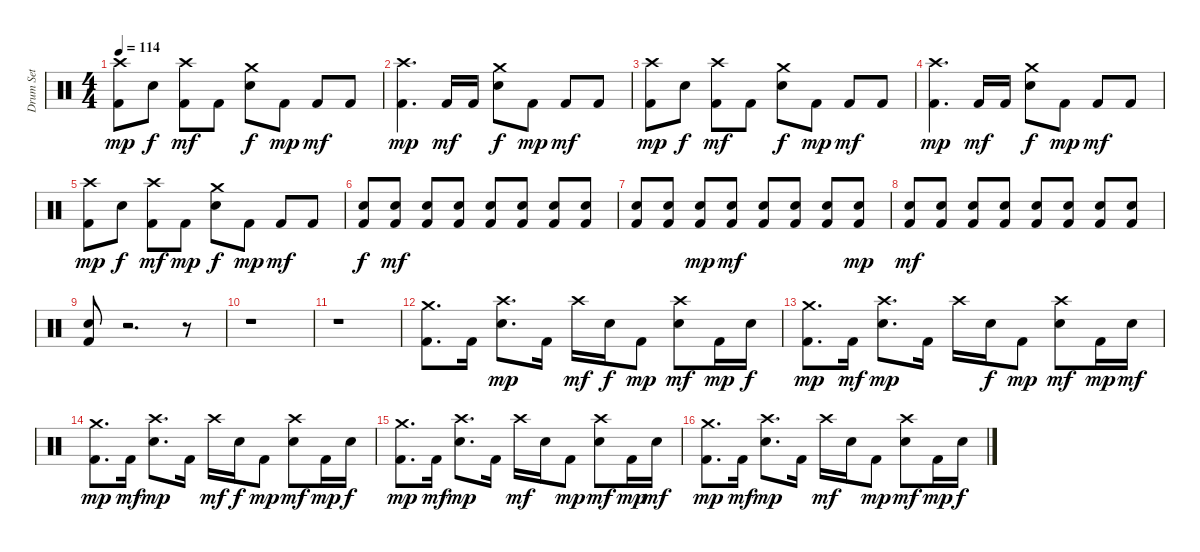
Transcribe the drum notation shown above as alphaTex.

\track ("Drum Set" "Drum Set") {instrument percussion}
\staff {score}
\articulation defaults
\ts (4 4)
\tempo 114
\clef neutral
\ks c
("Kick (hit) 2" "Crash high (hit)").8{dy mp} "Snare (hit) 2".8{dy f} ("Kick (hit) 2" "Crash high (hit)").8{dy mf} "Kick (hit) 2".8 ("Snare (hit) 2" "Crash medium (hit)").8{dy f} "Kick (hit) 2".8{dy mp} "Kick (hit) 2".8{dy mf} "Kick (hit) 2".8 |
("Kick (hit) 2" "Crash high (hit)").4{d dy mp} "Kick (hit) 2".16{dy mf} "Kick (hit) 2".16 ("Snare (hit) 2" "Crash medium (hit)").8{dy f} "Kick (hit) 2".8{dy mp} "Kick (hit) 2".8{dy mf} "Kick (hit) 2".8 |
("Kick (hit) 2" "Crash high (hit)").8{dy mp} "Snare (hit) 2".8{dy f} ("Kick (hit) 2" "Crash high (hit)").8{dy mf} "Kick (hit) 2".8 ("Snare (hit) 2" "Crash medium (hit)").8{dy f} "Kick (hit) 2".8{dy mp} "Kick (hit) 2".8{dy mf} "Kick (hit) 2".8 |
("Kick (hit) 2" "Crash high (hit)").4{d dy mp} "Kick (hit) 2".16{dy mf} "Kick (hit) 2".16 ("Snare (hit) 2" "Crash medium (hit)").8{dy f} "Kick (hit) 2".8{dy mp} "Kick (hit) 2".8{dy mf} "Kick (hit) 2".8 |
("Kick (hit) 2" "Crash high (hit)").8{dy mp} "Snare (hit) 2".8{dy f} ("Kick (hit) 2" "Crash high (hit)").8{dy mf} "Kick (hit) 2".8{dy mp} ("Snare (hit) 2" "Crash medium (hit)").8{dy f} "Kick (hit) 2".8{dy mp} "Kick (hit) 2".8{dy mf} "Kick (hit) 2".8 |
("Kick (hit) 2" "Snare (hit) 2").8{dy f} ("Kick (hit) 2" "Snare (hit) 2").8{dy mf} ("Kick (hit) 2" "Snare (hit) 2").8 ("Kick (hit) 2" "Snare (hit) 2").8 ("Kick (hit) 2" "Snare (hit) 2").8 ("Kick (hit) 2" "Snare (hit) 2").8 ("Kick (hit) 2" "Snare (hit) 2").8 ("Kick (hit) 2" "Snare (hit) 2").8 |
("Kick (hit) 2" "Snare (hit) 2").8 ("Kick (hit) 2" "Snare (hit) 2").8 ("Kick (hit) 2" "Snare (hit) 2").8{dy mp} ("Kick (hit) 2" "Snare (hit) 2").8{dy mf} ("Kick (hit) 2" "Snare (hit) 2").8 ("Kick (hit) 2" "Snare (hit) 2").8 ("Kick (hit) 2" "Snare (hit) 2").8 ("Kick (hit) 2" "Snare (hit) 2").8{dy mp} |
("Kick (hit) 2" "Snare (hit) 2").8{dy mf} ("Kick (hit) 2" "Snare (hit) 2").8 ("Kick (hit) 2" "Snare (hit) 2").8 ("Kick (hit) 2" "Snare (hit) 2").8 ("Kick (hit) 2" "Snare (hit) 2").8 ("Kick (hit) 2" "Snare (hit) 2").8 ("Kick (hit) 2" "Snare (hit) 2").8 ("Kick (hit) 2" "Snare (hit) 2").8 |
("Kick (hit) 2" "Snare (hit) 2").8 r.2{d} r.8 |
r.1 |
r.1 |
("Kick (hit) 2" "Crash medium (hit)").8{d} "Kick (hit) 2".16 ("Snare (hit) 2" "Crash high (hit)").8{d dy mp} "Kick (hit) 2".16 "Crash high (hit)".16{dy mf} "Snare (hit) 2".16{dy f} "Kick (hit) 2".8{dy mp} ("Snare (hit) 2" "Crash high (hit)").8{dy mf} "Kick (hit) 2".16{dy mp} "Snare (hit) 2".16{dy f} |
("Kick (hit) 2" "Crash medium (hit)").8{d dy mp} "Kick (hit) 2".16{dy mf} ("Snare (hit) 2" "Crash high (hit)").8{d dy mp} "Kick (hit) 2".16 "Crash high (hit)".16 "Snare (hit) 2".16{dy f} "Kick (hit) 2".8{dy mp} ("Snare (hit) 2" "Crash high (hit)").8{dy mf} "Kick (hit) 2".16{dy mp} "Snare (hit) 2".16{dy mf} |
("Kick (hit) 2" "Crash medium (hit)").8{d dy mp} "Kick (hit) 2".16{dy mf} ("Snare (hit) 2" "Crash high (hit)").8{d dy mp} "Kick (hit) 2".16 "Crash high (hit)".16{dy mf} "Snare (hit) 2".16{dy f} "Kick (hit) 2".8{dy mp} ("Snare (hit) 2" "Crash high (hit)").8{dy mf} "Kick (hit) 2".16{dy mp} "Snare (hit) 2".16{dy f} |
("Kick (hit) 2" "Crash medium (hit)").8{d dy mp} "Kick (hit) 2".16{dy mf} ("Snare (hit) 2" "Crash high (hit)").8{d dy mp} "Kick (hit) 2".16 "Crash high (hit)".16{dy mf} "Snare (hit) 2".16 "Kick (hit) 2".8{dy mp} ("Snare (hit) 2" "Crash high (hit)").8{dy mf} "Kick (hit) 2".16{dy mp} "Snare (hit) 2".16{dy mf} |
("Kick (hit) 2" "Crash medium (hit)").8{d dy mp} "Kick (hit) 2".16{dy mf} ("Snare (hit) 2" "Crash high (hit)").8{d dy mp} "Kick (hit) 2".16 "Crash high (hit)".16{dy mf} "Snare (hit) 2".16 "Kick (hit) 2".8{dy mp} ("Snare (hit) 2" "Crash high (hit)").8{dy mf} "Kick (hit) 2".16{dy mp} "Snare (hit) 2".16{dy f}
